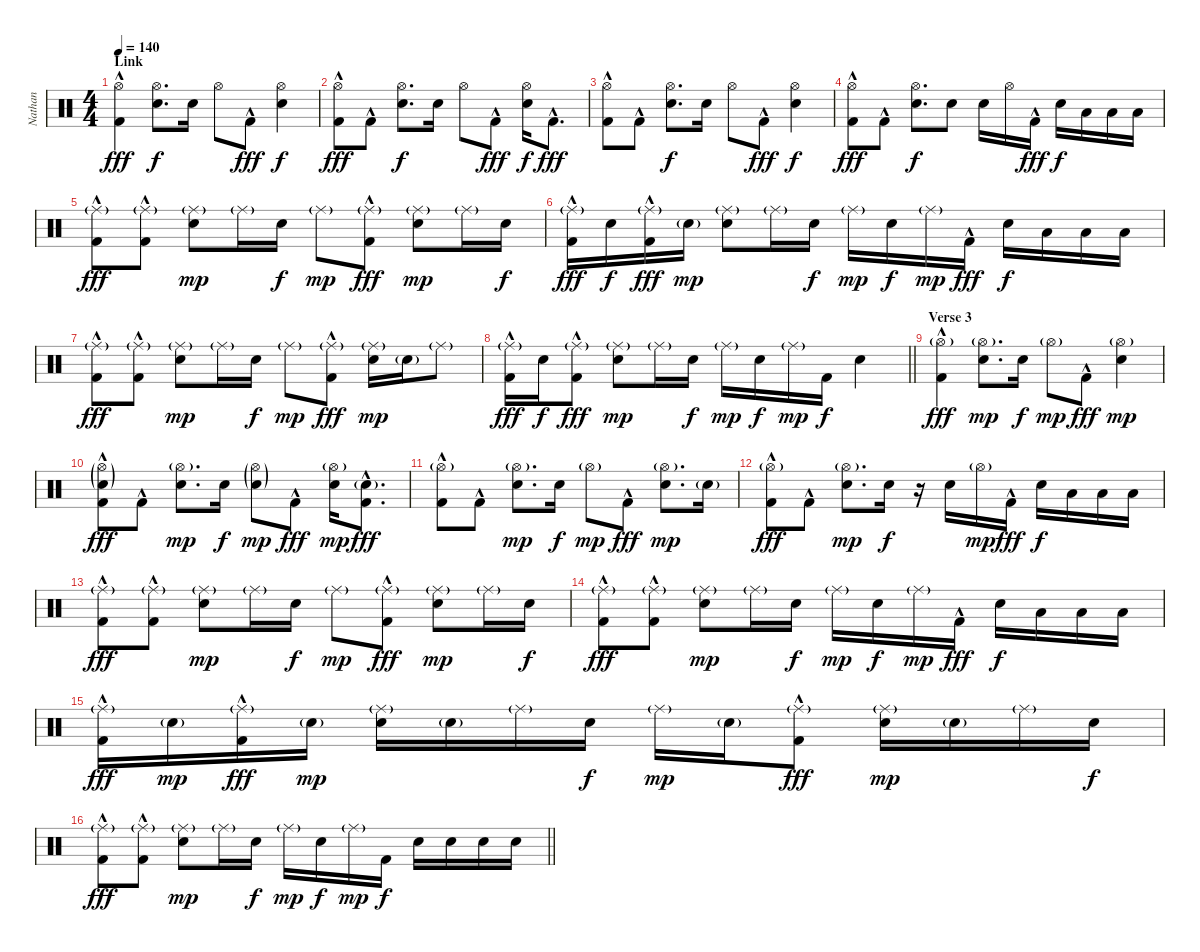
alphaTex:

\track ("Nathan" "Nathan") {instrument percussion}
\staff {score}
\articulation defaults
\ts (4 4)
\section ("" "Link")
\tempo 140
\clef neutral
\ks c
("Hi-Hat (open)" "Kick (hit) 2"{hac}).4{dy fff} ("Hi-Hat (open)" "Snare (hit) 2").8{d dy f} "Snare (hit) 2".16 "Hi-Hat (open)".8 "Kick (hit) 2"{hac}.8{dy fff} ("Hi-Hat (open)" "Snare (hit) 2").4{dy f} |
("Hi-Hat (open)" "Kick (hit) 2"{hac}).8{dy fff} "Kick (hit) 2"{hac}.8 ("Hi-Hat (open)" "Snare (hit) 2").8{d dy f} "Snare (hit) 2".16 "Hi-Hat (open)".8 "Kick (hit) 2"{hac}.8{dy fff} ("Hi-Hat (open)" "Snare (hit) 2").16{dy f} "Kick (hit) 2"{hac}.8{d dy fff} |
("Hi-Hat (open)" "Kick (hit) 2"{hac}).8 "Kick (hit) 2"{hac}.8 ("Hi-Hat (open)" "Snare (hit) 2").8{d dy f} "Snare (hit) 2".16 "Hi-Hat (open)".8 "Kick (hit) 2"{hac}.8{dy fff} ("Hi-Hat (open)" "Snare (hit) 2").4{dy f} |
("Hi-Hat (open)" "Kick (hit) 2"{hac}).8{dy fff} "Kick (hit) 2"{hac}.8 ("Hi-Hat (open)" "Snare (hit) 2").8{d dy f} "Snare (hit) 2".8 "Snare (hit) 2".16 "Hi-Hat (open)".16 "Kick (hit) 2"{hac}.16{dy fff} "Snare (hit) 2".16{dy f} "Low Tom (hit)".16 "Low Tom (hit)".16 "Low Tom (hit)".16 |
("Ride (middle)"{g} "Kick (hit) 2"{hac}).8{dy fff} ("Ride (middle)"{g} "Kick (hit) 2"{hac}).8 ("Ride (middle)"{g} "Snare (hit) 2").8{dy mp} "Ride (middle)"{g}.16 "Snare (hit) 2".16{dy f} "Ride (middle)"{g}.8{dy mp} ("Ride (middle)"{g} "Kick (hit) 2"{hac}).8{dy fff} ("Ride (middle)"{g} "Snare (hit) 2").8{dy mp} "Ride (middle)"{g}.16 "Snare (hit) 2".16{dy f} |
("Ride (middle)"{g} "Kick (hit) 2"{hac}).16{dy fff} "Snare (hit) 2".16{dy f} ("Ride (middle)"{g} "Kick (hit) 2"{hac}).16{dy fff} "Snare (hit) 2"{g}.16{dy mp} ("Ride (middle)"{g} "Snare (hit) 2").8 "Ride (middle)"{g}.16 "Snare (hit) 2".16{dy f} "Ride (middle)"{g}.16{dy mp} "Snare (hit) 2".16{dy f} "Ride (middle)"{g}.16{dy mp} "Kick (hit) 2"{hac}.16{dy fff} "Snare (hit) 2".16{dy f} "Low Tom (hit)".16 "Low Tom (hit)".16 "Low Tom (hit)".16 |
("Ride (middle)"{g} "Kick (hit) 2"{hac}).8{dy fff} ("Ride (middle)"{g} "Kick (hit) 2"{hac}).8 ("Ride (middle)"{g} "Snare (hit) 2").8{dy mp} "Ride (middle)"{g}.16 "Snare (hit) 2".16{dy f} "Ride (middle)"{g}.8{dy mp} ("Ride (middle)"{g} "Kick (hit) 2"{hac}).8{dy fff} ("Ride (middle)"{g} "Snare (hit) 2").16{dy mp} "Snare (hit) 2"{g}.16 "Ride (middle)"{g}.8 |
\barLineRight lightlight
("Ride (middle)"{g} "Kick (hit) 2"{hac}).16{dy fff} "Snare (hit) 2".16{dy f} ("Ride (middle)"{g} "Kick (hit) 2"{hac}).8{dy fff} ("Ride (middle)"{g} "Snare (hit) 2").8{dy mp} "Ride (middle)"{g}.16 "Snare (hit) 2".16{dy f} "Ride (middle)"{g}.16{dy mp} "Snare (hit) 2".16{dy f} "Ride (middle)"{g}.16{dy mp} "Kick (hit) 2".16{dy f} "Snare (hit) 2".4 |
\section ("" "Verse 3")
("Hi-Hat (open)"{g} "Kick (hit) 2"{hac}).4{dy fff} ("Hi-Hat (open)"{g} "Snare (hit) 2").8{d dy mp} "Snare (hit) 2".16{dy f} "Hi-Hat (open)"{g}.8{dy mp} "Kick (hit) 2"{hac}.8{dy fff} ("Hi-Hat (open)"{g} "Snare (hit) 2").4{dy mp} |
("Hi-Hat (open)"{g} "Snare (hit) 2"{g} "Kick (hit) 2"{hac}).8{dy fff} "Kick (hit) 2"{hac}.8 ("Hi-Hat (open)"{g} "Snare (hit) 2").8{d dy mp} "Snare (hit) 2".16{dy f} ("Hi-Hat (open)"{g} "Snare (hit) 2"{g}).8{dy mp} "Kick (hit) 2"{hac}.8{dy fff} ("Hi-Hat (open)"{g} "Snare (hit) 2").16{dy mp} ("Snare (hit) 2"{g} "Kick (hit) 2"{hac}).8{d dy fff} |
("Hi-Hat (open)"{g} "Kick (hit) 2"{hac}).8 "Kick (hit) 2"{hac}.8 ("Hi-Hat (open)"{g} "Snare (hit) 2").8{d dy mp} "Snare (hit) 2".16{dy f} "Hi-Hat (open)"{g}.8{dy mp} "Kick (hit) 2"{hac}.8{dy fff} ("Hi-Hat (open)"{g} "Snare (hit) 2").8{d dy mp} "Snare (hit) 2"{g}.16 |
("Hi-Hat (open)"{g} "Kick (hit) 2"{hac}).8{dy fff} "Kick (hit) 2"{hac}.8 ("Hi-Hat (open)"{g} "Snare (hit) 2").8{d dy mp} "Snare (hit) 2".16{dy f} r.16 "Snare (hit) 2".16 "Hi-Hat (open)"{g}.16{dy mp} "Kick (hit) 2"{hac}.16{dy fff} "Snare (hit) 2".16{dy f} "Low Tom (hit)".16 "Low Tom (hit)".16 "Low Tom (hit)".16 |
("Ride (middle)"{g} "Kick (hit) 2"{hac}).8{dy fff} ("Ride (middle)"{g} "Kick (hit) 2"{hac}).8 ("Ride (middle)"{g} "Snare (hit) 2").8{dy mp} "Ride (middle)"{g}.16 "Snare (hit) 2".16{dy f} "Ride (middle)"{g}.8{dy mp} ("Ride (middle)"{g} "Kick (hit) 2"{hac}).8{dy fff} ("Ride (middle)"{g} "Snare (hit) 2").8{dy mp} "Ride (middle)"{g}.16 "Snare (hit) 2".16{dy f} |
("Ride (middle)"{g} "Kick (hit) 2"{hac}).8{dy fff} ("Ride (middle)"{g} "Kick (hit) 2"{hac}).8 ("Ride (middle)"{g} "Snare (hit) 2").8{dy mp} "Ride (middle)"{g}.16 "Snare (hit) 2".16{dy f} "Ride (middle)"{g}.16{dy mp} "Snare (hit) 2".16{dy f} "Ride (middle)"{g}.16{dy mp} "Kick (hit) 2"{hac}.16{dy fff} "Snare (hit) 2".16{dy f} "Low Tom (hit)".16 "Low Tom (hit)".16 "Low Tom (hit)".16 |
("Ride (middle)"{g} "Kick (hit) 2"{hac}).16{dy fff} "Snare (hit) 2"{g}.16{dy mp} ("Ride (middle)"{g} "Kick (hit) 2"{hac}).16{dy fff} "Snare (hit) 2"{g}.16{dy mp} ("Ride (middle)"{g} "Snare (hit) 2").16 "Snare (hit) 2"{g}.16 "Ride (middle)"{g}.16 "Snare (hit) 2".16{dy f} "Ride (middle)"{g}.16{dy mp} "Snare (hit) 2"{g}.16 ("Ride (middle)"{g} "Kick (hit) 2"{hac}).8{dy fff} ("Ride (middle)"{g} "Snare (hit) 2").16{dy mp} "Snare (hit) 2"{g}.16 "Ride (middle)"{g}.16 "Snare (hit) 2".16{dy f} |
\barLineRight lightlight
("Ride (middle)"{g} "Kick (hit) 2"{hac}).8{dy fff} ("Ride (middle)"{g} "Kick (hit) 2"{hac}).8 ("Ride (middle)"{g} "Snare (hit) 2").8{dy mp} "Ride (middle)"{g}.16 "Snare (hit) 2".16{dy f} "Ride (middle)"{g}.16{dy mp} "Snare (hit) 2".16{dy f} "Ride (middle)"{g}.16{dy mp} "Kick (hit) 2".16{dy f} "Snare (hit) 2".16 "Snare (hit) 2".16 "Snare (hit) 2".16 "Snare (hit) 2".16
